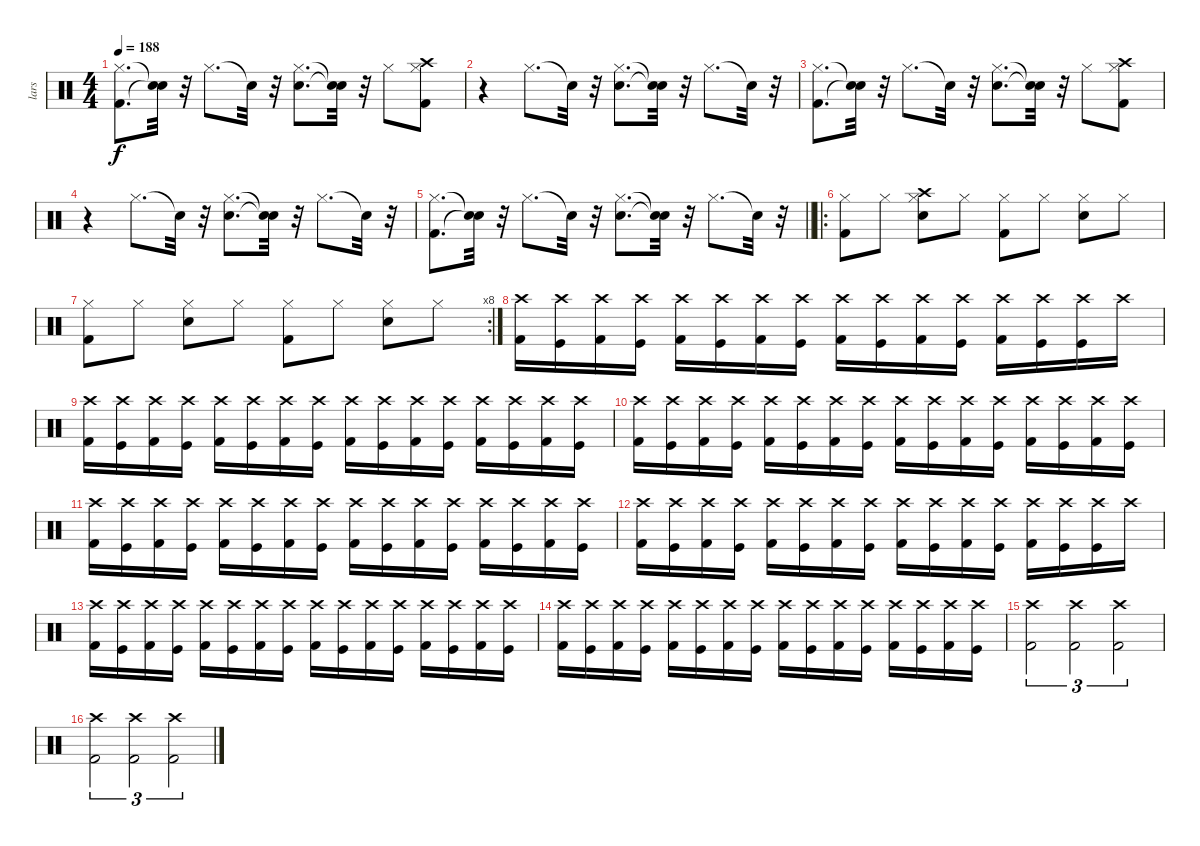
\track ("lars" "lars") {instrument percussion}
\staff {score}
\articulation defaults
\ts (4 4)
\tempo 188
\clef neutral
\ks c
("Kick (hit) 2" "Hi-Hat (closed)").8{d dy f} ("Snare (hit)"{t} "Snare (hit)"{t}).32 r.32 "Hi-Hat (closed)".8{d} "Snare (hit)"{t}.32 r.32 ("Snare (hit) 2" "Hi-Hat (closed)").8{d} ("Snare (hit)"{t} "Snare (hit)"{t}).32 r.32 "Hi-Hat (closed)".8 ("Kick (hit) 2" "Hi-Hat (closed)" "Crash high (hit)").8 |
r.4 "Hi-Hat (closed)".8{d} "Snare (hit)"{t}.32 r.32 ("Snare (hit) 2" "Hi-Hat (closed)").8{d} ("Snare (hit)"{t} "Snare (hit)"{t}).32 r.32 "Hi-Hat (closed)".8{d} "Snare (hit)"{t}.32 r.32 |
("Kick (hit) 2" "Hi-Hat (closed)").8{d} ("Snare (hit)"{t} "Snare (hit)"{t}).32 r.32 "Hi-Hat (closed)".8{d} "Snare (hit)"{t}.32 r.32 ("Snare (hit) 2" "Hi-Hat (closed)").8{d} ("Snare (hit)"{t} "Snare (hit)"{t}).32 r.32 "Hi-Hat (closed)".8 ("Kick (hit) 2" "Hi-Hat (closed)" "Crash high (hit)").8 |
r.4 "Hi-Hat (closed)".8{d} "Snare (hit)"{t}.32 r.32 ("Snare (hit) 2" "Hi-Hat (closed)").8{d} ("Snare (hit)"{t} "Snare (hit)"{t}).32 r.32 "Hi-Hat (closed)".8{d} "Snare (hit)"{t}.32 r.32 |
\barLineRight lightlight
("Kick (hit) 2" "Hi-Hat (closed)").8{d} ("Snare (hit)"{t} "Snare (hit)"{t}).32 r.32 "Hi-Hat (closed)".8{d} "Snare (hit)"{t}.32 r.32 ("Snare (hit) 2" "Hi-Hat (closed)").8{d} ("Snare (hit)"{t} "Snare (hit)"{t}).32 r.32 "Hi-Hat (closed)".8{d} "Snare (hit)"{t}.32 r.32 |
\ro
("Kick (hit) 2" "Hi-Hat (closed)").8 "Hi-Hat (closed)".8 ("Snare (hit) 2" "Hi-Hat (closed)" "Crash high (hit)").8 "Hi-Hat (closed)".8 ("Kick (hit) 2" "Hi-Hat (closed)").8 "Hi-Hat (closed)".8 ("Snare (hit) 2" "Hi-Hat (closed)").8 "Hi-Hat (closed)".8 |
\rc 8
("Kick (hit) 2" "Hi-Hat (closed)").8 "Hi-Hat (closed)".8 ("Snare (hit) 2" "Hi-Hat (closed)").8 "Hi-Hat (closed)".8 ("Kick (hit) 2" "Hi-Hat (closed)").8 "Hi-Hat (closed)".8 ("Snare (hit) 2" "Hi-Hat (closed)").8 "Hi-Hat (closed)".8 |
("Crash high (hit)" "Kick (hit) 2").16 ("Crash high (hit)" "Kick (hit)").16 ("Crash high (hit)" "Kick (hit) 2").16 ("Crash high (hit)" "Kick (hit)").16 ("Crash high (hit)" "Kick (hit) 2").16 ("Crash high (hit)" "Kick (hit)").16 ("Crash high (hit)" "Kick (hit) 2").16 ("Crash high (hit)" "Kick (hit)").16 ("Crash high (hit)" "Kick (hit) 2").16 ("Crash high (hit)" "Kick (hit)").16 ("Crash high (hit)" "Kick (hit) 2").16 ("Crash high (hit)" "Kick (hit)").16 ("Crash high (hit)" "Kick (hit) 2").16 ("Crash high (hit)" "Kick (hit)").16 ("Crash high (hit)" "Kick (hit)").16 "Crash high (hit)".16 |
("Crash high (hit)" "Kick (hit) 2").16 ("Crash high (hit)" "Kick (hit)").16 ("Crash high (hit)" "Kick (hit) 2").16 ("Crash high (hit)" "Kick (hit)").16 ("Crash high (hit)" "Kick (hit) 2").16 ("Crash high (hit)" "Kick (hit)").16 ("Crash high (hit)" "Kick (hit) 2").16 ("Crash high (hit)" "Kick (hit)").16 ("Crash high (hit)" "Kick (hit) 2").16 ("Crash high (hit)" "Kick (hit)").16 ("Crash high (hit)" "Kick (hit) 2").16 ("Crash high (hit)" "Kick (hit)").16 ("Crash high (hit)" "Kick (hit) 2").16 ("Crash high (hit)" "Kick (hit)").16 ("Crash high (hit)" "Kick (hit) 2").16 ("Crash high (hit)" "Kick (hit)").16 |
("Crash high (hit)" "Kick (hit) 2").16 ("Crash high (hit)" "Kick (hit)").16 ("Crash high (hit)" "Kick (hit) 2").16 ("Crash high (hit)" "Kick (hit)").16 ("Crash high (hit)" "Kick (hit) 2").16 ("Crash high (hit)" "Kick (hit)").16 ("Crash high (hit)" "Kick (hit) 2").16 ("Crash high (hit)" "Kick (hit)").16 ("Crash high (hit)" "Kick (hit) 2").16 ("Crash high (hit)" "Kick (hit)").16 ("Crash high (hit)" "Kick (hit) 2").16 ("Crash high (hit)" "Kick (hit)").16 ("Crash high (hit)" "Kick (hit) 2").16 ("Crash high (hit)" "Kick (hit)").16 ("Crash high (hit)" "Kick (hit) 2").16 ("Crash high (hit)" "Kick (hit)").16 |
("Crash high (hit)" "Kick (hit) 2").16 ("Crash high (hit)" "Kick (hit)").16 ("Crash high (hit)" "Kick (hit) 2").16 ("Crash high (hit)" "Kick (hit)").16 ("Crash high (hit)" "Kick (hit) 2").16 ("Crash high (hit)" "Kick (hit)").16 ("Crash high (hit)" "Kick (hit) 2").16 ("Crash high (hit)" "Kick (hit)").16 ("Crash high (hit)" "Kick (hit) 2").16 ("Crash high (hit)" "Kick (hit)").16 ("Crash high (hit)" "Kick (hit) 2").16 ("Crash high (hit)" "Kick (hit)").16 ("Crash high (hit)" "Kick (hit) 2").16 ("Crash high (hit)" "Kick (hit)").16 ("Crash high (hit)" "Kick (hit) 2").16 ("Crash high (hit)" "Kick (hit)").16 |
("Crash high (hit)" "Kick (hit) 2").16 ("Crash high (hit)" "Kick (hit)").16 ("Crash high (hit)" "Kick (hit) 2").16 ("Crash high (hit)" "Kick (hit)").16 ("Crash high (hit)" "Kick (hit) 2").16 ("Crash high (hit)" "Kick (hit)").16 ("Crash high (hit)" "Kick (hit) 2").16 ("Crash high (hit)" "Kick (hit)").16 ("Crash high (hit)" "Kick (hit) 2").16 ("Crash high (hit)" "Kick (hit)").16 ("Crash high (hit)" "Kick (hit) 2").16 ("Crash high (hit)" "Kick (hit)").16 ("Crash high (hit)" "Kick (hit) 2").16 ("Crash high (hit)" "Kick (hit)").16 ("Crash high (hit)" "Kick (hit)").16 "Crash high (hit)".16 |
("Crash high (hit)" "Kick (hit) 2").16 ("Crash high (hit)" "Kick (hit)").16 ("Crash high (hit)" "Kick (hit) 2").16 ("Crash high (hit)" "Kick (hit)").16 ("Crash high (hit)" "Kick (hit) 2").16 ("Crash high (hit)" "Kick (hit)").16 ("Crash high (hit)" "Kick (hit) 2").16 ("Crash high (hit)" "Kick (hit)").16 ("Crash high (hit)" "Kick (hit) 2").16 ("Crash high (hit)" "Kick (hit)").16 ("Crash high (hit)" "Kick (hit) 2").16 ("Crash high (hit)" "Kick (hit)").16 ("Crash high (hit)" "Kick (hit) 2").16 ("Crash high (hit)" "Kick (hit)").16 ("Crash high (hit)" "Kick (hit) 2").16 ("Crash high (hit)" "Kick (hit)").16 |
("Crash high (hit)" "Kick (hit) 2").16 ("Crash high (hit)" "Kick (hit)").16 ("Crash high (hit)" "Kick (hit) 2").16 ("Crash high (hit)" "Kick (hit)").16 ("Crash high (hit)" "Kick (hit) 2").16 ("Crash high (hit)" "Kick (hit)").16 ("Crash high (hit)" "Kick (hit) 2").16 ("Crash high (hit)" "Kick (hit)").16 ("Crash high (hit)" "Kick (hit) 2").16 ("Crash high (hit)" "Kick (hit)").16 ("Crash high (hit)" "Kick (hit) 2").16 ("Crash high (hit)" "Kick (hit)").16 ("Crash high (hit)" "Kick (hit) 2").16 ("Crash high (hit)" "Kick (hit)").16 ("Crash high (hit)" "Kick (hit) 2").16 ("Crash high (hit)" "Kick (hit)").16 |
("Crash high (hit)" "Kick (hit) 2").2{tu (3 2)} ("Crash high (hit)" "Kick (hit) 2").2{tu (3 2)} ("Crash high (hit)" "Kick (hit) 2").2{tu (3 2)} |
("Crash high (hit)" "Kick (hit) 2").2{tu (3 2)} ("Crash high (hit)" "Kick (hit) 2").2{tu (3 2)} ("Crash high (hit)" "Kick (hit) 2").2{tu (3 2)}
